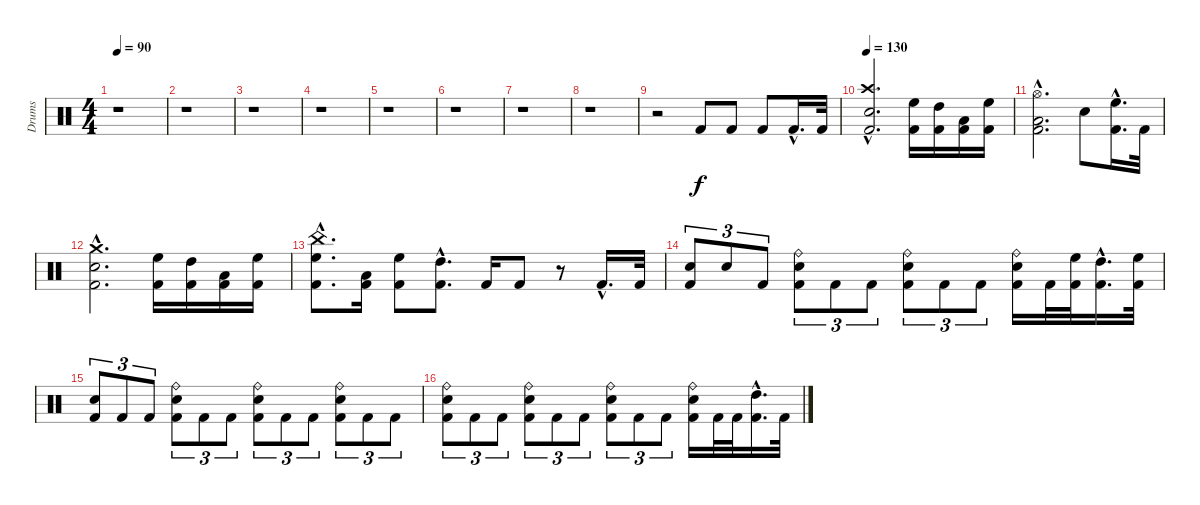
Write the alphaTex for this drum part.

\track ("Drums" "Drums") {instrument percussion}
\staff {score}
\articulation defaults
\ts (4 4)
\tempo 90
\clef neutral
\ks c
r.1{dy mp} |
r.1 |
r.1 |
r.1 |
r.1 |
r.1 |
r.1 |
r.1 |
r.2 "Kick (hit) 2".8{dy f} "Kick (hit) 2".8 "Kick (hit) 2".8 "Kick (hit) 2"{hac}.16{d} "Kick (hit) 2".32 |
\tempo 130
("Crash high (hit)"{hac} "Snare (hit) 2"{hac} "Kick (hit) 2"{hac}).2{d} ("High Floor Tom (hit)" "Kick (hit) 2").16 ("High Tom (hit)" "Kick (hit) 2").16 ("Low Tom (hit)" "Kick (hit) 2").16 ("High Floor Tom (hit)" "Kick (hit) 2").16 |
("Hi-Hat (open)"{hac} "Low Tom (hit)"{hac} "Kick (hit) 2"{hac}).2{d} "Snare (hit) 2".8 ("High Floor Tom (hit)"{hac} "Kick (hit) 2"{hac}).16{d} "Kick (hit) 2".32 |
("Crash medium (hit)"{hac} "Snare (hit) 2"{hac} "Kick (hit) 2"{hac}).2{d} ("High Floor Tom (hit)" "Kick (hit) 2").16 ("High Tom (hit)" "Kick (hit) 2").16 ("Low Tom (hit)" "Kick (hit) 2").16 ("High Floor Tom (hit)" "Kick (hit) 2").16 |
("China (hit)"{hac} "High Floor Tom (hit)"{hac} "Kick (hit) 2"{hac}).8{d} ("Low Tom (hit)" "Kick (hit) 2").16 ("High Floor Tom (hit)" "Kick (hit) 2").8 ("High Tom (hit)"{hac} "Kick (hit) 2"{hac}).8{d} "Kick (hit) 2".16 "Kick (hit) 2".8 r.8 "Kick (hit) 2"{hac}.16{d} "Kick (hit) 2".32 |
("Snare (hit) 2" "Kick (hit) 2").8{tu (3 2)} "Snare (hit) 2".8{tu (3 2)} "Kick (hit) 2".8{tu (3 2)} ("Ride (bell)" "Snare (hit) 2" "Kick (hit) 2").8{tu (3 2)} "Kick (hit) 2".8{tu (3 2)} "Kick (hit) 2".8{tu (3 2)} ("Ride (bell)" "Snare (hit) 2" "Kick (hit) 2").8{tu (3 2)} "Kick (hit) 2".8{tu (3 2)} "Kick (hit) 2".8{tu (3 2)} ("Ride (bell)" "Snare (hit) 2" "Kick (hit) 2").16 "Kick (hit) 2".32 ("High Floor Tom (hit)" "Kick (hit) 2").32 ("High Tom (hit)"{hac} "Kick (hit) 2"{hac}).16{d} ("High Floor Tom (hit)" "Kick (hit) 2").32 |
("Snare (hit) 2" "Kick (hit) 2").8{tu (3 2)} "Kick (hit) 2".8{tu (3 2)} "Kick (hit) 2".8{tu (3 2)} ("Ride (bell)" "Snare (hit) 2" "Kick (hit) 2").8{tu (3 2)} "Kick (hit) 2".8{tu (3 2)} "Kick (hit) 2".8{tu (3 2)} ("Ride (bell)" "Snare (hit) 2" "Kick (hit) 2").8{tu (3 2)} "Kick (hit) 2".8{tu (3 2)} "Kick (hit) 2".8{tu (3 2)} ("Ride (bell)" "Snare (hit) 2" "Kick (hit) 2").8{tu (3 2)} "Kick (hit) 2".8{tu (3 2)} "Kick (hit) 2".8{tu (3 2)} |
("Ride (bell)" "Snare (hit) 2" "Kick (hit) 2").8{tu (3 2)} "Kick (hit) 2".8{tu (3 2)} "Kick (hit) 2".8{tu (3 2)} ("Ride (bell)" "Snare (hit) 2" "Kick (hit) 2").8{tu (3 2)} "Kick (hit) 2".8{tu (3 2)} "Kick (hit) 2".8{tu (3 2)} ("Ride (bell)" "Snare (hit) 2" "Kick (hit) 2").8{tu (3 2)} "Kick (hit) 2".8{tu (3 2)} "Kick (hit) 2".8{tu (3 2)} ("Ride (bell)" "Snare (hit) 2" "Kick (hit) 2").16 "Kick (hit) 2".32 "Kick (hit) 2".32 ("High Tom (hit)"{hac} "Kick (hit) 2"{hac}).16{d} "Kick (hit) 2".32
